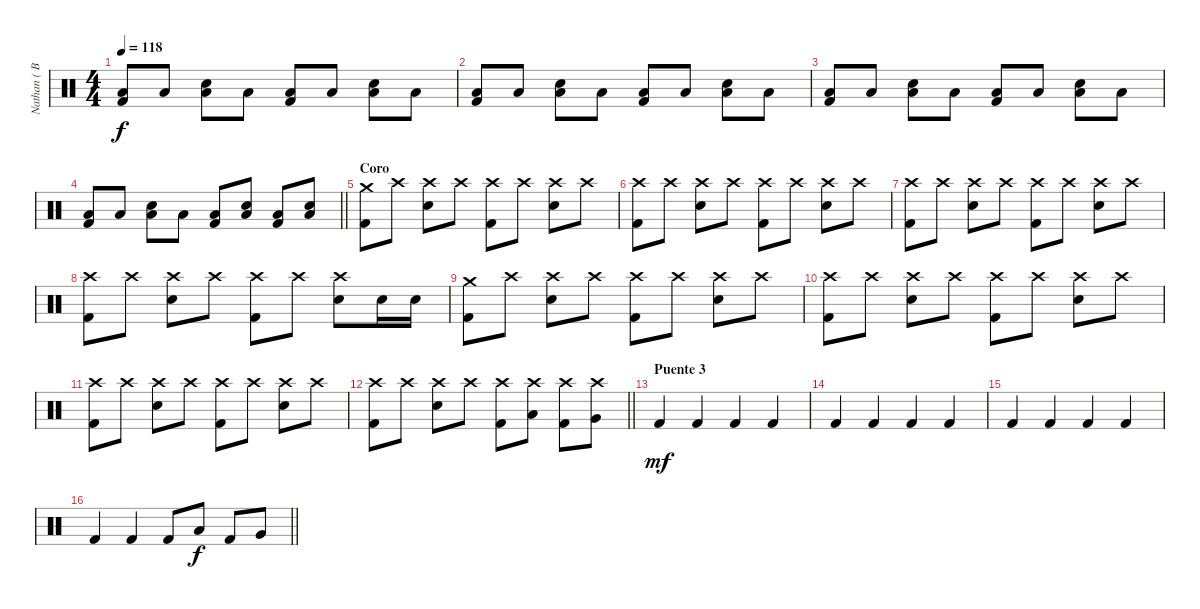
\track ("Nathan ( Bateria )" "Nathan ( B") {instrument percussion}
\staff {score}
\articulation defaults
\ts (4 4)
\tempo 118
\clef neutral
\ks c
("Low Floor Tom (hit)" "Kick (hit) 2").8{dy f} "Low Floor Tom (hit)".8 ("Low Floor Tom (hit)" "Electric Snare (hit)").8 "Low Floor Tom (hit)".8 ("Low Floor Tom (hit)" "Kick (hit) 2").8 "Low Floor Tom (hit)".8 ("Low Floor Tom (hit)" "Electric Snare (hit)").8 "Low Floor Tom (hit)".8 |
("Low Floor Tom (hit)" "Kick (hit) 2").8 "Low Floor Tom (hit)".8 ("Low Floor Tom (hit)" "Electric Snare (hit)").8 "Low Floor Tom (hit)".8 ("Low Floor Tom (hit)" "Kick (hit) 2").8 "Low Floor Tom (hit)".8 ("Low Floor Tom (hit)" "Electric Snare (hit)").8 "Low Floor Tom (hit)".8 |
("Low Floor Tom (hit)" "Kick (hit) 2").8 "Low Floor Tom (hit)".8 ("Low Floor Tom (hit)" "Electric Snare (hit)").8 "Low Floor Tom (hit)".8 ("Low Floor Tom (hit)" "Kick (hit) 2").8 "Low Floor Tom (hit)".8 ("Low Floor Tom (hit)" "Electric Snare (hit)").8 "Low Floor Tom (hit)".8 |
\barLineRight lightlight
("Low Floor Tom (hit)" "Kick (hit) 2").8 "Low Floor Tom (hit)".8 ("Low Floor Tom (hit)" "Electric Snare (hit)").8 "Low Floor Tom (hit)".8 ("Low Floor Tom (hit)" "Kick (hit) 2").8 ("Low Floor Tom (hit)" "Electric Snare (hit)").8 ("Low Floor Tom (hit)" "Kick (hit) 2").8 ("Low Floor Tom (hit)" "Electric Snare (hit)").8 |
\section ("" "Coro")
("Crash medium (hit)" "Kick (hit) 2").8 "Crash high (hit)".8 ("Crash high (hit)" "Electric Snare (hit)").8 "Crash high (hit)".8 ("Crash high (hit)" "Kick (hit) 2").8 "Crash high (hit)".8 ("Crash high (hit)" "Electric Snare (hit)").8 "Crash high (hit)".8 |
("Crash high (hit)" "Kick (hit) 2").8 "Crash high (hit)".8 ("Crash high (hit)" "Electric Snare (hit)").8 "Crash high (hit)".8 ("Crash high (hit)" "Kick (hit) 2").8 "Crash high (hit)".8 ("Crash high (hit)" "Electric Snare (hit)").8 "Crash high (hit)".8 |
("Crash high (hit)" "Kick (hit) 2").8 "Crash high (hit)".8 ("Crash high (hit)" "Electric Snare (hit)").8 "Crash high (hit)".8 ("Crash high (hit)" "Kick (hit) 2").8 "Crash high (hit)".8 ("Crash high (hit)" "Electric Snare (hit)").8 "Crash high (hit)".8 |
("Crash high (hit)" "Kick (hit) 2").8 "Crash high (hit)".8 ("Crash high (hit)" "Electric Snare (hit)").8 "Crash high (hit)".8 ("Crash high (hit)" "Kick (hit) 2").8 "Crash high (hit)".8 ("Crash high (hit)" "Electric Snare (hit)").8 "Electric Snare (hit)".16 "Electric Snare (hit)".16 |
("Crash medium (hit)" "Kick (hit) 2").8 "Crash high (hit)".8 ("Crash high (hit)" "Electric Snare (hit)").8 "Crash high (hit)".8 ("Crash high (hit)" "Kick (hit) 2").8 "Crash high (hit)".8 ("Crash high (hit)" "Electric Snare (hit)").8 "Crash high (hit)".8 |
("Crash high (hit)" "Kick (hit) 2").8 "Crash high (hit)".8 ("Crash high (hit)" "Electric Snare (hit)").8 "Crash high (hit)".8 ("Crash high (hit)" "Kick (hit) 2").8 "Crash high (hit)".8 ("Crash high (hit)" "Electric Snare (hit)").8 "Crash high (hit)".8 |
("Crash high (hit)" "Kick (hit) 2").8 "Crash high (hit)".8 ("Crash high (hit)" "Electric Snare (hit)").8 "Crash high (hit)".8 ("Crash high (hit)" "Kick (hit) 2").8 "Crash high (hit)".8 ("Crash high (hit)" "Electric Snare (hit)").8 "Crash high (hit)".8 |
\barLineRight lightlight
("Crash high (hit)" "Kick (hit) 2").8 "Crash high (hit)".8 ("Crash high (hit)" "Electric Snare (hit)").8 "Crash high (hit)".8 ("Crash high (hit)" "Kick (hit) 2").8 ("Crash high (hit)" "Low Tom (hit)").8 ("Crash high (hit)" "Kick (hit) 2").8 ("Crash high (hit)" "Very Low Tom (hit)").8 |
\section ("" "Puente 3")
"Kick (hit) 2".4{dy mf} "Kick (hit) 2".4 "Kick (hit) 2".4 "Kick (hit) 2".4 |
"Kick (hit) 2".4 "Kick (hit) 2".4 "Kick (hit) 2".4 "Kick (hit) 2".4 |
"Kick (hit) 2".4 "Kick (hit) 2".4 "Kick (hit) 2".4 "Kick (hit) 2".4 |
\barLineRight lightlight "Kick (hit) 2".4 "Kick (hit) 2".4 "Kick (hit) 2".8 "Low Tom (hit)".8{dy f} "Kick (hit) 2".8 "Very Low Tom (hit)".8
